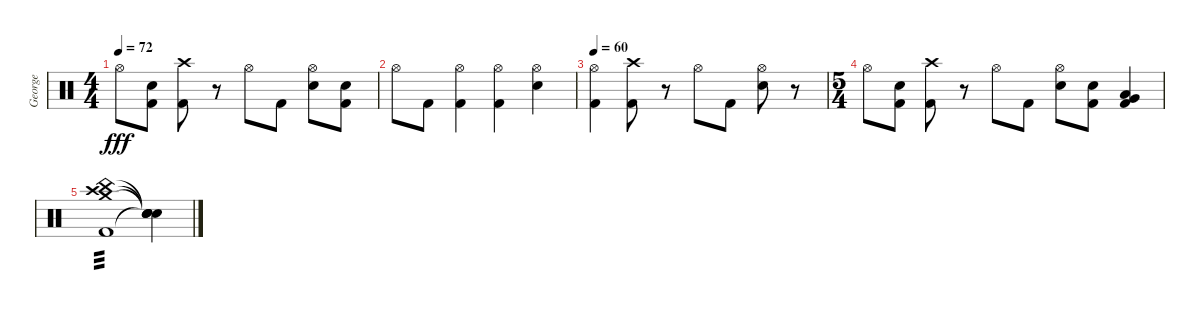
\track ("George" "George") {instrument percussion}
\staff {score}
\articulation defaults
\ts (4 4)
\tempo 72
\clef neutral
\ks c "Hi-Hat (open)".8{dy fff}
("Snare (hit)" "Kick (hit) 2").8 ("Crash high (hit)" "Kick (hit) 2").8 r.8 "Hi-Hat (open)".8 "Kick (hit) 2".8 ("Hi-Hat (open)" "Snare (hit) 2").8 ("Snare (hit)" "Kick (hit) 2").8 |
"Hi-Hat (open)".8 "Kick (hit) 2".8 ("Hi-Hat (open)" "Kick (hit) 2").4 ("Hi-Hat (open)" "Kick (hit) 2").4 ("Snare (hit) 2" "Hi-Hat (open)").4 |
\tempo 60
("Hi-Hat (open)" "Kick (hit) 2").4 ("Crash high (hit)" "Kick (hit) 2").8 r.8 "Hi-Hat (open)".8 "Kick (hit) 2".8 ("Hi-Hat (open)" "Snare (hit) 2").8 r.8 |
\ts (5 4)
"Hi-Hat (open)".8 ("Snare (hit)" "Kick (hit) 2").8 ("Crash high (hit)" "Kick (hit) 2").8 r.8 "Hi-Hat (open)".8 "Kick (hit) 2".8 ("Hi-Hat (open)" "Snare (hit) 2").8 ("Snare (hit)" "Kick (hit) 2").8 ("Low Floor Tom (hit)" "Very Low Tom (hit)" "Kick (hit) 2").4 |
("China (hit)" "Crash high (hit)" "Crash medium (hit)" "Kick (hit) 2").1{tp 3} ("Snare (hit)"{t} "Snare (hit)"{t} "Snare (hit)"{t} "Snare (hit)"{t}).4
